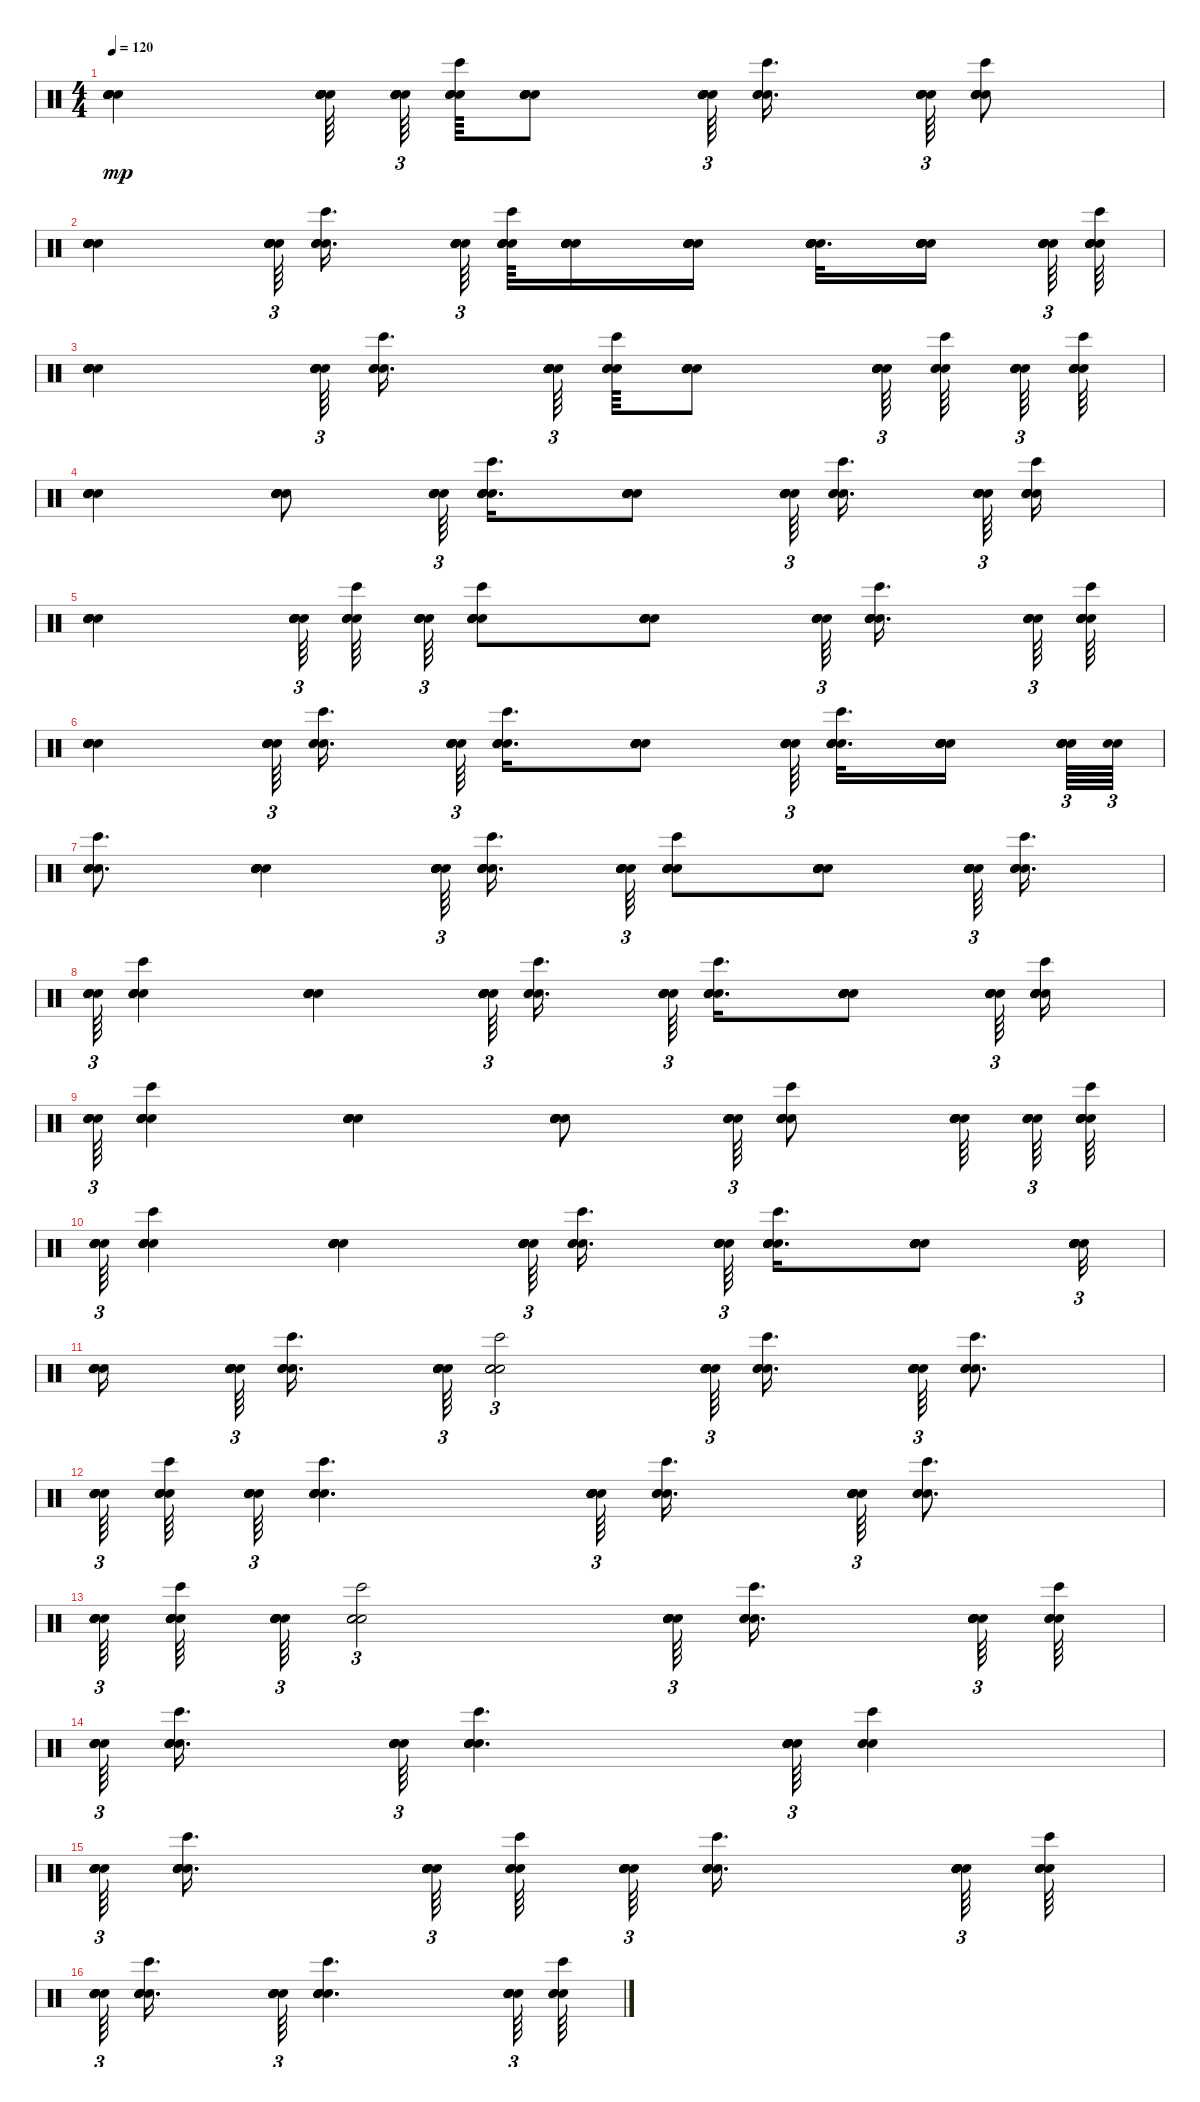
\track "" {instrument percussion}
\staff {score}
\articulation defaults
\ts (4 4)
\tempo 120
\clef neutral
\ks c
("Snare (hit)" "Snare (hit)" "Snare (hit)" "Snare (hit)" "Snare (hit)" "Snare (hit)").4{dy mp} ("Snare (hit)" "Snare (hit)" "Snare (hit)" "Snare (hit)" "Snare (hit)" "Snare (hit)").64 ("Snare (hit)" "Snare (hit)" "Snare (hit)" "Snare (hit)" "Snare (hit)" "Snare (hit)").64{tu (3 2)} ("Snare (hit)" "Snare (hit)" "Bongo High (hit)" "Snare (hit)").64 ("Snare (hit)" "Snare (hit)" "Snare (hit)" "Snare (hit)" "Snare (hit)" "Snare (hit)").8 ("Snare (hit)" "Snare (hit)" "Snare (hit)" "Snare (hit)" "Snare (hit)" "Snare (hit)").64{tu (3 2)} ("Snare (hit)" "Snare (hit)" "Snare (hit)" "Bongo High (hit)").16{d} ("Snare (hit)" "Snare (hit)" "Snare (hit)" "Snare (hit)" "Snare (hit)").64{tu (3 2)} ("Snare (hit)" "Snare (hit)" "Snare (hit)" "Snare (hit)" "Bongo High (hit)" "Snare (hit)").8 |
("Snare (hit)" "Snare (hit)" "Snare (hit)" "Snare (hit)" "Snare (hit)" "Snare (hit)").4 ("Snare (hit)" "Snare (hit)" "Snare (hit)" "Snare (hit)" "Snare (hit)" "Snare (hit)").64{tu (3 2)} ("Snare (hit)" "Snare (hit)" "Bongo High (hit)" "Snare (hit)").16{d} ("Snare (hit)" "Snare (hit)" "Snare (hit)" "Snare (hit)" "Snare (hit)").64{tu (3 2)} ("Snare (hit)" "Snare (hit)" "Snare (hit)" "Snare (hit)" "Bongo High (hit)" "Snare (hit)").64 ("Snare (hit)" "Snare (hit)" "Snare (hit)" "Snare (hit)" "Snare (hit)" "Snare (hit)").16 ("Snare (hit)" "Snare (hit)" "Snare (hit)" "Snare (hit)" "Snare (hit)" "Snare (hit)").16 ("Snare (hit)" "Snare (hit)" "Snare (hit)" "Snare (hit)" "Snare (hit)" "Snare (hit)").32{d} ("Snare (hit)" "Snare (hit)" "Snare (hit)" "Snare (hit)" "Snare (hit)" "Snare (hit)").16 ("Snare (hit)" "Snare (hit)" "Snare (hit)" "Snare (hit)" "Snare (hit)").64{tu (3 2)} ("Snare (hit)" "Snare (hit)" "Snare (hit)" "Snare (hit)" "Bongo High (hit)" "Snare (hit)").64 |
("Snare (hit)" "Snare (hit)" "Snare (hit)" "Snare (hit)" "Snare (hit)" "Snare (hit)").4 ("Snare (hit)" "Snare (hit)" "Snare (hit)" "Snare (hit)" "Snare (hit)" "Snare (hit)").64{tu (3 2)} ("Snare (hit)" "Snare (hit)" "Snare (hit)" "Bongo High (hit)").16{d} ("Snare (hit)" "Snare (hit)" "Snare (hit)" "Snare (hit)" "Snare (hit)" "Snare (hit)").64{tu (3 2)} ("Snare (hit)" "Snare (hit)" "Bongo High (hit)" "Snare (hit)").64 ("Snare (hit)" "Snare (hit)" "Snare (hit)" "Snare (hit)" "Snare (hit)" "Snare (hit)").8 ("Snare (hit)" "Snare (hit)" "Snare (hit)" "Snare (hit)" "Snare (hit)" "Snare (hit)").64{tu (3 2)} ("Snare (hit)" "Snare (hit)" "Bongo High (hit)" "Snare (hit)").64 ("Snare (hit)" "Snare (hit)" "Snare (hit)" "Snare (hit)" "Snare (hit)").64{tu (3 2)} ("Snare (hit)" "Snare (hit)" "Snare (hit)" "Snare (hit)" "Snare (hit)" "Bongo High (hit)").64 |
("Snare (hit)" "Snare (hit)" "Snare (hit)" "Snare (hit)" "Snare (hit)" "Snare (hit)").4 ("Snare (hit)" "Snare (hit)" "Snare (hit)" "Snare (hit)" "Snare (hit)" "Snare (hit)").8 ("Snare (hit)" "Snare (hit)" "Snare (hit)" "Snare (hit)" "Snare (hit)").64{tu (3 2)} ("Snare (hit)" "Snare (hit)" "Snare (hit)" "Snare (hit)" "Snare (hit)" "Bongo High (hit)").16{d} ("Snare (hit)" "Snare (hit)" "Snare (hit)" "Snare (hit)" "Snare (hit)" "Snare (hit)").8 ("Snare (hit)" "Snare (hit)" "Snare (hit)" "Snare (hit)" "Snare (hit)" "Snare (hit)").64{tu (3 2)} ("Snare (hit)" "Snare (hit)" "Snare (hit)" "Bongo High (hit)").16{d} ("Snare (hit)" "Snare (hit)" "Snare (hit)" "Snare (hit)" "Snare (hit)").64{tu (3 2)} ("Snare (hit)" "Snare (hit)" "Snare (hit)" "Snare (hit)" "Snare (hit)" "Bongo High (hit)").16 |
("Snare (hit)" "Snare (hit)" "Snare (hit)" "Snare (hit)" "Snare (hit)" "Snare (hit)").4 ("Snare (hit)" "Snare (hit)" "Snare (hit)" "Snare (hit)" "Snare (hit)" "Snare (hit)").64{tu (3 2)} ("Snare (hit)" "Snare (hit)" "Bongo High (hit)" "Snare (hit)").64 ("Snare (hit)" "Snare (hit)" "Snare (hit)" "Snare (hit)" "Snare (hit)").64{tu (3 2)} ("Snare (hit)" "Snare (hit)" "Snare (hit)" "Snare (hit)" "Bongo High (hit)" "Snare (hit)").8 ("Snare (hit)" "Snare (hit)" "Snare (hit)" "Snare (hit)" "Snare (hit)" "Snare (hit)").8 ("Snare (hit)" "Snare (hit)" "Snare (hit)" "Snare (hit)" "Snare (hit)").64{tu (3 2)} ("Snare (hit)" "Snare (hit)" "Snare (hit)" "Snare (hit)" "Snare (hit)" "Bongo High (hit)").16{d} ("Snare (hit)" "Snare (hit)" "Snare (hit)" "Snare (hit)" "Snare (hit)").64{tu (3 2)} ("Snare (hit)" "Snare (hit)" "Snare (hit)" "Snare (hit)" "Snare (hit)" "Bongo High (hit)").64 |
("Snare (hit)" "Snare (hit)" "Snare (hit)" "Snare (hit)" "Snare (hit)" "Snare (hit)").4 ("Snare (hit)" "Snare (hit)" "Snare (hit)" "Snare (hit)" "Snare (hit)" "Snare (hit)").64{tu (3 2)} ("Snare (hit)" "Snare (hit)" "Snare (hit)" "Bongo High (hit)").16{d} ("Snare (hit)" "Snare (hit)" "Snare (hit)" "Snare (hit)" "Snare (hit)").64{tu (3 2)} ("Snare (hit)" "Snare (hit)" "Snare (hit)" "Snare (hit)" "Bongo High (hit)" "Snare (hit)").16{d} ("Snare (hit)" "Snare (hit)" "Snare (hit)" "Snare (hit)" "Snare (hit)" "Snare (hit)").8 ("Snare (hit)" "Snare (hit)" "Snare (hit)" "Snare (hit)" "Snare (hit)").64{tu (3 2)} ("Snare (hit)" "Snare (hit)" "Snare (hit)" "Snare (hit)" "Bongo High (hit)" "Snare (hit)").32{d} ("Snare (hit)" "Snare (hit)" "Snare (hit)" "Snare (hit)" "Snare (hit)" "Snare (hit)").16 ("Snare (hit)" "Snare (hit)" "Snare (hit)" "Snare (hit)" "Snare (hit)").64{tu (3 2)} ("Snare (hit)" "Snare (hit)").64{tu (3 2)} |
("Snare (hit)" "Snare (hit)" "Bongo High (hit)" "Snare (hit)").8{d} ("Snare (hit)" "Snare (hit)" "Snare (hit)" "Snare (hit)" "Snare (hit)" "Snare (hit)").4 ("Snare (hit)" "Snare (hit)" "Snare (hit)" "Snare (hit)" "Snare (hit)" "Snare (hit)").64{tu (3 2)} ("Snare (hit)" "Snare (hit)" "Snare (hit)" "Snare (hit)" "Bongo High (hit)").16{d} ("Snare (hit)" "Snare (hit)" "Snare (hit)" "Snare (hit)" "Snare (hit)").64{tu (3 2)} ("Snare (hit)" "Snare (hit)" "Snare (hit)" "Snare (hit)" "Snare (hit)" "Bongo High (hit)").8 ("Snare (hit)" "Snare (hit)" "Snare (hit)" "Snare (hit)" "Snare (hit)" "Snare (hit)").8 ("Snare (hit)" "Snare (hit)" "Snare (hit)" "Snare (hit)" "Snare (hit)" "Snare (hit)").64{tu (3 2)} ("Snare (hit)" "Snare (hit)" "Snare (hit)" "Bongo High (hit)").16{d} |
("Snare (hit)" "Snare (hit)" "Snare (hit)" "Snare (hit)" "Snare (hit)").64{tu (3 2)} ("Snare (hit)" "Snare (hit)" "Snare (hit)" "Snare (hit)" "Snare (hit)" "Bongo High (hit)").4 ("Snare (hit)" "Snare (hit)" "Snare (hit)" "Snare (hit)" "Snare (hit)" "Snare (hit)").4 ("Snare (hit)" "Snare (hit)" "Snare (hit)" "Snare (hit)" "Snare (hit)" "Snare (hit)").64{tu (3 2)} ("Snare (hit)" "Snare (hit)" "Snare (hit)" "Bongo High (hit)").16{d} ("Snare (hit)" "Snare (hit)" "Snare (hit)" "Snare (hit)" "Snare (hit)").64{tu (3 2)} ("Snare (hit)" "Snare (hit)" "Snare (hit)" "Snare (hit)" "Snare (hit)" "Bongo High (hit)").16{d} ("Snare (hit)" "Snare (hit)" "Snare (hit)" "Snare (hit)" "Snare (hit)" "Snare (hit)").8 ("Snare (hit)" "Snare (hit)" "Snare (hit)" "Snare (hit)" "Snare (hit)").64{tu (3 2)} ("Snare (hit)" "Snare (hit)" "Snare (hit)" "Bongo High (hit)" "Snare (hit)" "Snare (hit)").16 |
("Snare (hit)" "Snare (hit)" "Snare (hit)" "Snare (hit)" "Snare (hit)").64{tu (3 2)} ("Snare (hit)" "Snare (hit)" "Snare (hit)" "Bongo High (hit)" "Snare (hit)" "Snare (hit)").4 ("Snare (hit)" "Snare (hit)" "Snare (hit)" "Snare (hit)" "Snare (hit)" "Snare (hit)").4 ("Snare (hit)" "Snare (hit)" "Snare (hit)" "Snare (hit)" "Snare (hit)" "Snare (hit)").8 ("Snare (hit)" "Snare (hit)" "Snare (hit)" "Snare (hit)" "Snare (hit)").64{tu (3 2)} ("Snare (hit)" "Snare (hit)" "Snare (hit)" "Snare (hit)" "Bongo High (hit)" "Snare (hit)").8 ("Snare (hit)" "Snare (hit)" "Snare (hit)" "Snare (hit)" "Snare (hit)" "Snare (hit)").64 ("Snare (hit)" "Snare (hit)" "Snare (hit)" "Snare (hit)" "Snare (hit)").64{tu (3 2)} ("Snare (hit)" "Snare (hit)" "Snare (hit)" "Snare (hit)" "Snare (hit)" "Bongo High (hit)").64 |
("Snare (hit)" "Snare (hit)" "Snare (hit)" "Snare (hit)" "Snare (hit)").64{tu (3 2)} ("Snare (hit)" "Snare (hit)" "Snare (hit)" "Snare (hit)" "Bongo High (hit)" "Snare (hit)").4 ("Snare (hit)" "Snare (hit)" "Snare (hit)" "Snare (hit)" "Snare (hit)" "Snare (hit)").4 ("Snare (hit)" "Snare (hit)" "Snare (hit)" "Snare (hit)" "Snare (hit)" "Snare (hit)").64{tu (3 2)} ("Snare (hit)" "Snare (hit)" "Bongo High (hit)" "Snare (hit)").16{d} ("Snare (hit)" "Snare (hit)" "Snare (hit)" "Snare (hit)" "Snare (hit)").64{tu (3 2)} ("Snare (hit)" "Snare (hit)" "Snare (hit)" "Snare (hit)" "Bongo High (hit)" "Snare (hit)").16{d} ("Snare (hit)" "Snare (hit)" "Snare (hit)" "Snare (hit)" "Snare (hit)" "Snare (hit)").8 ("Snare (hit)" "Snare (hit)" "Snare (hit)" "Snare (hit)" "Snare (hit)" "Snare (hit)").32{tu (3 2)} |
("Snare (hit)" "Snare (hit)" "Snare (hit)" "Snare (hit)" "Snare (hit)" "Snare (hit)").16 ("Snare (hit)" "Snare (hit)" "Snare (hit)" "Snare (hit)" "Snare (hit)" "Snare (hit)").64{tu (3 2)} ("Snare (hit)" "Bongo High (hit)" "Snare (hit)" "Snare (hit)").16{d} ("Snare (hit)" "Snare (hit)" "Snare (hit)" "Snare (hit)" "Snare (hit)" "Snare (hit)").64{tu (3 2)} ("Snare (hit)" "Snare (hit)" "Snare (hit)" "Bongo High (hit)").2{tu (3 2)} ("Snare (hit)" "Snare (hit)" "Snare (hit)" "Snare (hit)" "Snare (hit)" "Snare (hit)").64{tu (3 2)} ("Snare (hit)" "Bongo High (hit)" "Snare (hit)" "Snare (hit)").16{d} ("Snare (hit)" "Snare (hit)" "Snare (hit)" "Snare (hit)" "Snare (hit)" "Snare (hit)").64{tu (3 2)} ("Snare (hit)" "Bongo High (hit)" "Snare (hit)" "Snare (hit)").8{d} |
("Snare (hit)" "Snare (hit)" "Snare (hit)" "Snare (hit)" "Snare (hit)").64{tu (3 2)} ("Snare (hit)" "Snare (hit)" "Snare (hit)" "Snare (hit)" "Bongo High (hit)" "Snare (hit)").64 ("Snare (hit)" "Snare (hit)" "Snare (hit)" "Snare (hit)" "Snare (hit)").64{tu (3 2)} ("Snare (hit)" "Snare (hit)" "Snare (hit)" "Snare (hit)" "Snare (hit)" "Bongo High (hit)").4{d} ("Snare (hit)" "Snare (hit)" "Snare (hit)" "Snare (hit)" "Snare (hit)" "Snare (hit)").64{tu (3 2)} ("Snare (hit)" "Snare (hit)" "Bongo High (hit)" "Snare (hit)").16{d} ("Snare (hit)" "Snare (hit)" "Snare (hit)" "Snare (hit)" "Snare (hit)" "Snare (hit)").64{tu (3 2)} ("Snare (hit)" "Snare (hit)" "Bongo High (hit)" "Snare (hit)").8{d} |
("Snare (hit)" "Snare (hit)" "Snare (hit)" "Snare (hit)" "Snare (hit)").64{tu (3 2)} ("Snare (hit)" "Snare (hit)" "Snare (hit)" "Snare (hit)" "Bongo High (hit)" "Snare (hit)").64 ("Snare (hit)" "Snare (hit)" "Snare (hit)" "Snare (hit)" "Snare (hit)" "Snare (hit)").64{tu (3 2)} ("Snare (hit)" "Bongo High (hit)" "Snare (hit)" "Snare (hit)").2{tu (3 2)} ("Snare (hit)" "Snare (hit)" "Snare (hit)" "Snare (hit)" "Snare (hit)" "Snare (hit)").64{tu (3 2)} ("Snare (hit)" "Snare (hit)" "Bongo High (hit)" "Snare (hit)").16{d} ("Snare (hit)" "Snare (hit)" "Snare (hit)" "Snare (hit)" "Snare (hit)" "Snare (hit)").64{tu (3 2)} ("Snare (hit)" "Snare (hit)" "Bongo High (hit)" "Snare (hit)").64 |
("Snare (hit)" "Snare (hit)" "Snare (hit)" "Snare (hit)" "Snare (hit)").64{tu (3 2)} ("Snare (hit)" "Snare (hit)" "Snare (hit)" "Snare (hit)" "Bongo High (hit)" "Snare (hit)").16{d} ("Snare (hit)" "Snare (hit)" "Snare (hit)" "Snare (hit)" "Snare (hit)").64{tu (3 2)} ("Snare (hit)" "Snare (hit)" "Snare (hit)" "Bongo High (hit)" "Snare (hit)" "Snare (hit)").4{d} ("Snare (hit)" "Snare (hit)" "Snare (hit)" "Snare (hit)" "Snare (hit)" "Snare (hit)").64{tu (3 2)} ("Snare (hit)" "Bongo High (hit)" "Snare (hit)" "Snare (hit)").4 |
("Snare (hit)" "Snare (hit)" "Snare (hit)" "Snare (hit)" "Snare (hit)").64{tu (3 2)} ("Snare (hit)" "Snare (hit)" "Snare (hit)" "Snare (hit)" "Snare (hit)" "Bongo High (hit)").16{d} ("Snare (hit)" "Snare (hit)" "Snare (hit)" "Snare (hit)" "Snare (hit)" "Snare (hit)").64{tu (3 2)} ("Snare (hit)" "Snare (hit)" "Bongo High (hit)" "Snare (hit)").64 ("Snare (hit)" "Snare (hit)" "Snare (hit)" "Snare (hit)" "Snare (hit)" "Snare (hit)").64{tu (3 2)} ("Snare (hit)" "Snare (hit)" "Bongo High (hit)" "Snare (hit)").16{d} ("Snare (hit)" "Snare (hit)" "Snare (hit)" "Snare (hit)" "Snare (hit)" "Snare (hit)").64{tu (3 2)} ("Snare (hit)" "Snare (hit)" "Bongo High (hit)" "Snare (hit)").64 |
("Snare (hit)" "Snare (hit)" "Snare (hit)" "Snare (hit)" "Snare (hit)").64{tu (3 2)} ("Snare (hit)" "Snare (hit)" "Snare (hit)" "Snare (hit)" "Bongo High (hit)" "Snare (hit)").16{d} ("Snare (hit)" "Snare (hit)" "Snare (hit)" "Snare (hit)" "Snare (hit)").64{tu (3 2)} ("Snare (hit)" "Snare (hit)" "Snare (hit)" "Snare (hit)" "Bongo High (hit)" "Snare (hit)").4{d} ("Snare (hit)" "Snare (hit)" "Snare (hit)" "Snare (hit)" "Snare (hit)" "Snare (hit)").64{tu (3 2)} ("Snare (hit)" "Snare (hit)" "Bongo High (hit)" "Snare (hit)").64
